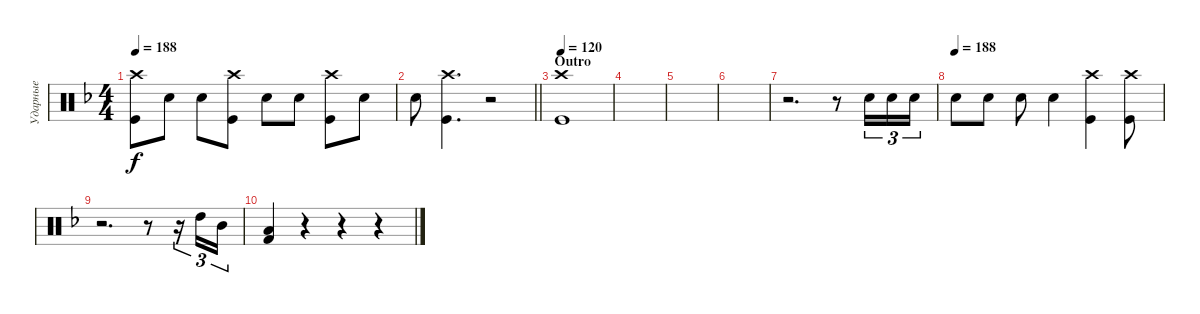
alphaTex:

\track ("Ударные" "Ударные") {instrument percussion}
\staff {score}
\articulation defaults
\ts (4 4)
\tempo 188
\clef neutral
\ks dminor
("Kick (hit)" "Crash high (hit)").8{dy f} "Snare (hit) 2".8 "Snare (hit) 2".8 ("Kick (hit)" "Crash high (hit)").8 "Snare (hit) 2".8 "Snare (hit) 2".8 ("Kick (hit)" "Crash high (hit)").8 "Snare (hit) 2".8 |
\barLineRight lightlight "Snare (hit) 2".8
("Kick (hit)" "Crash high (hit)").4{d} r.2 |
\section ("" "Outro")
\tempo 120
("Kick (hit)" "Crash high (hit)").1 |
|
|
|
r.2{d} r.8 "Snare (hit) 2".16{tu (3 2)} "Snare (hit) 2".16{tu (3 2)} "Snare (hit) 2".16{tu (3 2)} |
\tempo (188)
"Snare (hit) 2".8 "Snare (hit) 2".8 "Snare (hit) 2".8 "Snare (hit) 2".4 ("Kick (hit)" "Crash high (hit)").4 ("Kick (hit)" "Crash high (hit)").8 |
r.2{d} r.8 r.16{tu (3 2)} "High Tom (hit)".16{tu (3 2)} "Mid Tom (hit)".16{tu (3 2)} |
("Kick (hit) 2" "Low Tom (hit)").4 r.4 r.4 r.4
